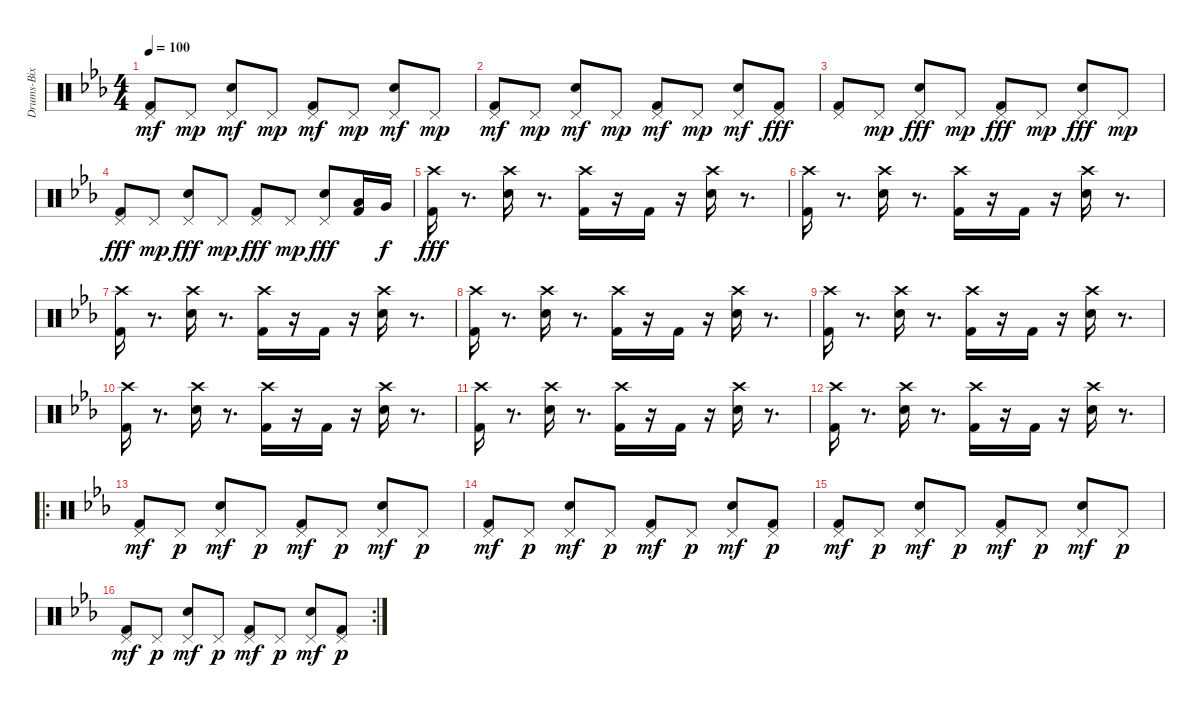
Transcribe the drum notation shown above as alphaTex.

\track ("Drums-Bix" "Drums-Bix") {instrument percussion}
\staff {score}
\articulation defaults
\ts (4 4)
\tempo 100
\clef neutral
\ks eb
("Kick (hit) 2" "Pedal Hi-Hat (hit)").8{dy mf} "Pedal Hi-Hat (hit)".8{dy mp} ("Electric Snare (hit)" "Pedal Hi-Hat (hit)").8{dy mf} "Pedal Hi-Hat (hit)".8{dy mp} ("Kick (hit) 2" "Pedal Hi-Hat (hit)").8{dy mf} "Pedal Hi-Hat (hit)".8{dy mp} ("Electric Snare (hit)" "Pedal Hi-Hat (hit)").8{dy mf} "Pedal Hi-Hat (hit)".8{dy mp} |
("Kick (hit) 2" "Pedal Hi-Hat (hit)").8{dy mf} "Pedal Hi-Hat (hit)".8{dy mp} ("Electric Snare (hit)" "Pedal Hi-Hat (hit)").8{dy mf} "Pedal Hi-Hat (hit)".8{dy mp} ("Kick (hit) 2" "Pedal Hi-Hat (hit)").8{dy mf} "Pedal Hi-Hat (hit)".8{dy mp} ("Electric Snare (hit)" "Pedal Hi-Hat (hit)").8{dy mf} ("Pedal Hi-Hat (hit)" "Kick (hit) 2").8{dy fff} |
("Pedal Hi-Hat (hit)" "Kick (hit) 2").8 "Pedal Hi-Hat (hit)".8{dy mp} ("Pedal Hi-Hat (hit)" "Electric Snare (hit)").8{dy fff} "Pedal Hi-Hat (hit)".8{dy mp} ("Pedal Hi-Hat (hit)" "Kick (hit) 2").8{dy fff} "Pedal Hi-Hat (hit)".8{dy mp} ("Pedal Hi-Hat (hit)" "Electric Snare (hit)").8{dy fff} "Pedal Hi-Hat (hit)".8{dy mp} |
("Pedal Hi-Hat (hit)" "Kick (hit) 2").8{dy fff} "Pedal Hi-Hat (hit)".8{dy mp} ("Pedal Hi-Hat (hit)" "Electric Snare (hit)").8{dy fff} "Pedal Hi-Hat (hit)".8{dy mp} ("Pedal Hi-Hat (hit)" "Kick (hit) 2").8{dy fff} "Pedal Hi-Hat (hit)".8{dy mp} ("Pedal Hi-Hat (hit)" "Electric Snare (hit)").8{dy fff} ("Kick (hit) 2" "Low Tom (hit)").16 "Very Low Tom (hit)".16{dy f} |
("Crash high (hit)" "Kick (hit) 2").16{dy fff} r.8{d} ("Crash high (hit)" "Electric Snare (hit)").16 r.8{d} ("Crash high (hit)" "Kick (hit) 2").16 r.16 "Kick (hit) 2".16 r.16 ("Crash high (hit)" "Electric Snare (hit)").16 r.8{d} |
("Crash high (hit)" "Kick (hit) 2").16 r.8{d} ("Crash high (hit)" "Electric Snare (hit)").16 r.8{d} ("Crash high (hit)" "Kick (hit) 2").16 r.16 "Kick (hit) 2".16 r.16 ("Crash high (hit)" "Electric Snare (hit)").16 r.8{d} |
("Crash high (hit)" "Kick (hit) 2").16 r.8{d} ("Crash high (hit)" "Electric Snare (hit)").16 r.8{d} ("Crash high (hit)" "Kick (hit) 2").16 r.16 "Kick (hit) 2".16 r.16 ("Crash high (hit)" "Electric Snare (hit)").16 r.8{d} |
("Crash high (hit)" "Kick (hit) 2").16 r.8{d} ("Crash high (hit)" "Electric Snare (hit)").16 r.8{d} ("Crash high (hit)" "Kick (hit) 2").16 r.16 "Kick (hit) 2".16 r.16 ("Crash high (hit)" "Electric Snare (hit)").16 r.8{d} |
("Crash high (hit)" "Kick (hit) 2").16 r.8{d} ("Crash high (hit)" "Electric Snare (hit)").16 r.8{d} ("Crash high (hit)" "Kick (hit) 2").16 r.16 "Kick (hit) 2".16 r.16 ("Crash high (hit)" "Electric Snare (hit)").16 r.8{d} |
("Crash high (hit)" "Kick (hit) 2").16 r.8{d} ("Crash high (hit)" "Electric Snare (hit)").16 r.8{d} ("Crash high (hit)" "Kick (hit) 2").16 r.16 "Kick (hit) 2".16 r.16 ("Crash high (hit)" "Electric Snare (hit)").16 r.8{d} |
("Crash high (hit)" "Kick (hit) 2").16 r.8{d} ("Crash high (hit)" "Electric Snare (hit)").16 r.8{d} ("Crash high (hit)" "Kick (hit) 2").16 r.16 "Kick (hit) 2".16 r.16 ("Crash high (hit)" "Electric Snare (hit)").16 r.8{d} |
("Crash high (hit)" "Kick (hit) 2").16 r.8{d} ("Crash high (hit)" "Electric Snare (hit)").16 r.8{d} ("Crash high (hit)" "Kick (hit) 2").16 r.16 "Kick (hit) 2".16 r.16 ("Crash high (hit)" "Electric Snare (hit)").16 r.8{d} |
\ro
("Kick (hit) 2" "Pedal Hi-Hat (hit)").8{dy mf} "Pedal Hi-Hat (hit)".8{dy p} ("Electric Snare (hit)" "Pedal Hi-Hat (hit)").8{dy mf} "Pedal Hi-Hat (hit)".8{dy p} ("Kick (hit) 2" "Pedal Hi-Hat (hit)").8{dy mf} "Pedal Hi-Hat (hit)".8{dy p} ("Electric Snare (hit)" "Pedal Hi-Hat (hit)").8{dy mf} "Pedal Hi-Hat (hit)".8{dy p} |
("Kick (hit) 2" "Pedal Hi-Hat (hit)").8{dy mf} "Pedal Hi-Hat (hit)".8{dy p} ("Electric Snare (hit)" "Pedal Hi-Hat (hit)").8{dy mf} "Pedal Hi-Hat (hit)".8{dy p} ("Kick (hit) 2" "Pedal Hi-Hat (hit)").8{dy mf} "Pedal Hi-Hat (hit)".8{dy p} ("Electric Snare (hit)" "Pedal Hi-Hat (hit)").8{dy mf} ("Kick (hit) 2" "Pedal Hi-Hat (hit)").8{dy p} |
("Kick (hit) 2" "Pedal Hi-Hat (hit)").8{dy mf} "Pedal Hi-Hat (hit)".8{dy p} ("Electric Snare (hit)" "Pedal Hi-Hat (hit)").8{dy mf} "Pedal Hi-Hat (hit)".8{dy p} ("Kick (hit) 2" "Pedal Hi-Hat (hit)").8{dy mf} "Pedal Hi-Hat (hit)".8{dy p} ("Electric Snare (hit)" "Pedal Hi-Hat (hit)").8{dy mf} "Pedal Hi-Hat (hit)".8{dy p} |
\rc 2
("Kick (hit) 2" "Pedal Hi-Hat (hit)").8{dy mf} "Pedal Hi-Hat (hit)".8{dy p} ("Electric Snare (hit)" "Pedal Hi-Hat (hit)").8{dy mf} "Pedal Hi-Hat (hit)".8{dy p} ("Kick (hit) 2" "Pedal Hi-Hat (hit)").8{dy mf} "Pedal Hi-Hat (hit)".8{dy p} ("Electric Snare (hit)" "Pedal Hi-Hat (hit)").8{dy mf} ("Kick (hit) 2" "Pedal Hi-Hat (hit)").8{dy p}
